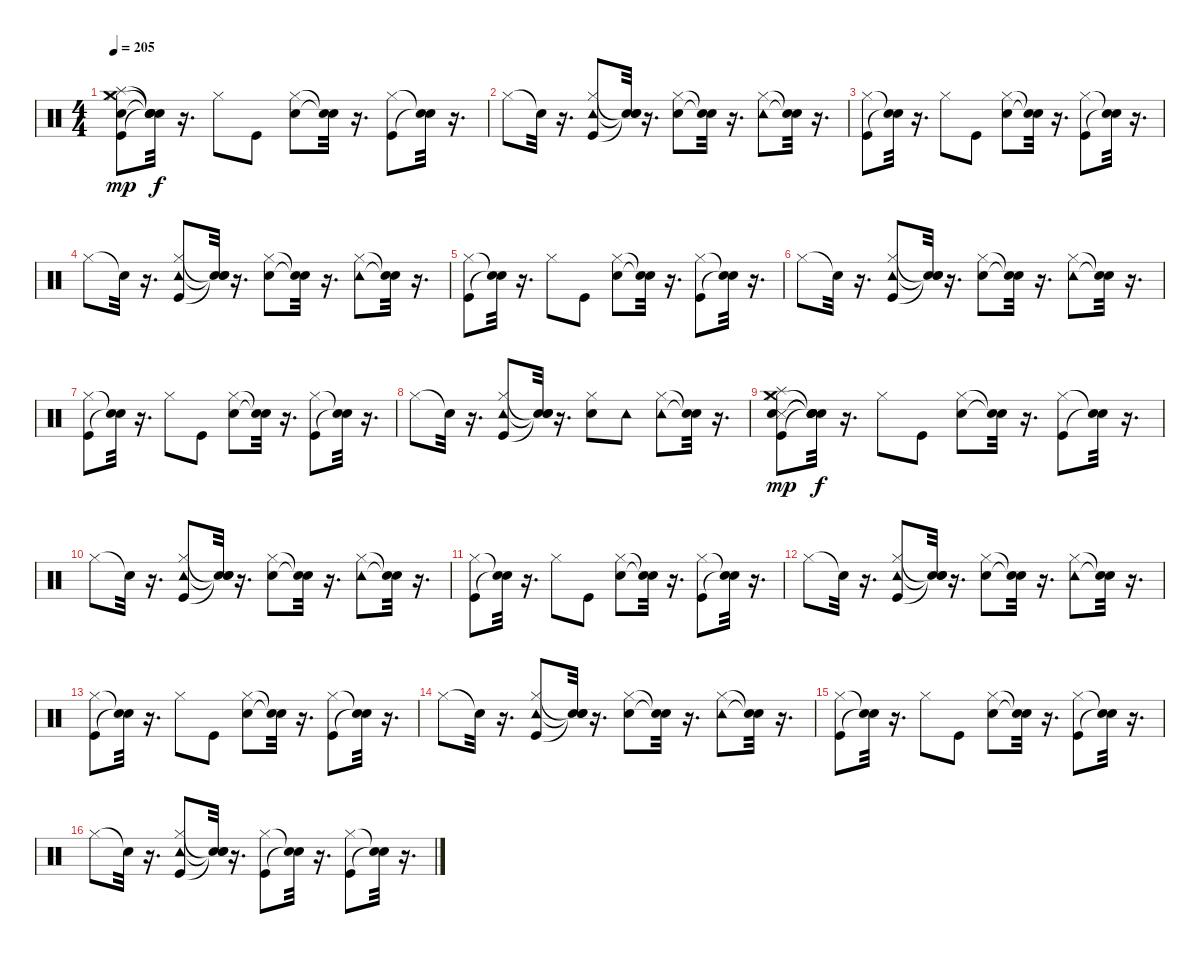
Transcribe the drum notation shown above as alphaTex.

\track "" {instrument percussion}
\staff {score}
\articulation defaults
\ts (4 4)
\tempo 205
\clef neutral
\ks c
("Snare (hit) 2" "Kick (hit)" "Hi-Hat (closed)" "Splash (hit)" "Crash medium (hit)").8{dy mp} ("Snare (hit)"{t} "Snare (hit)"{t} "Snare (hit)"{t} "Snare (hit)"{t}).32{dy f} r.16{d} "Hi-Hat (closed)".8 "Kick (hit)".8 ("Hi-Hat (closed)" "Electric Snare (hit)").8 ("Snare (hit)"{t} "Snare (hit)"{t}).32 r.16{d} ("Hi-Hat (closed)" "Kick (hit)").8 ("Snare (hit)"{t} "Snare (hit)"{t}).32 r.16{d} |
"Hi-Hat (closed)".8 "Snare (hit)"{t}.32 r.16{d} ("Hi-Hat (closed)" "Kick (hit)" "Tambourine (hit)").8 ("Snare (hit)"{t} "Snare (hit)"{t} "Snare (hit)"{t}).32 r.16{d} ("Hi-Hat (closed)" "Electric Snare (hit)").8 ("Snare (hit)"{t} "Snare (hit)"{t}).32 r.16{d} ("Hi-Hat (closed)" "Tambourine (hit)").8 ("Snare (hit)"{t} "Snare (hit)"{t}).32 r.16{d} |
("Kick (hit)" "Hi-Hat (closed)").8 ("Snare (hit)"{t} "Snare (hit)"{t}).32 r.16{d} "Hi-Hat (closed)".8 "Kick (hit)".8 ("Hi-Hat (closed)" "Electric Snare (hit)").8 ("Snare (hit)"{t} "Snare (hit)"{t}).32 r.16{d} ("Hi-Hat (closed)" "Kick (hit)").8 ("Snare (hit)"{t} "Snare (hit)"{t}).32 r.16{d} |
"Hi-Hat (closed)".8 "Snare (hit)"{t}.32 r.16{d} ("Hi-Hat (closed)" "Kick (hit)" "Tambourine (hit)").8 ("Snare (hit)"{t} "Snare (hit)"{t} "Snare (hit)"{t}).32 r.16{d} ("Hi-Hat (closed)" "Electric Snare (hit)").8 ("Snare (hit)"{t} "Snare (hit)"{t}).32 r.16{d} ("Hi-Hat (closed)" "Tambourine (hit)").8 ("Snare (hit)"{t} "Snare (hit)"{t}).32 r.16{d} |
("Kick (hit)" "Hi-Hat (closed)").8 ("Snare (hit)"{t} "Snare (hit)"{t}).32 r.16{d} "Hi-Hat (closed)".8 "Kick (hit)".8 ("Hi-Hat (closed)" "Electric Snare (hit)").8 ("Snare (hit)"{t} "Snare (hit)"{t}).32 r.16{d} ("Hi-Hat (closed)" "Kick (hit)").8 ("Snare (hit)"{t} "Snare (hit)"{t}).32 r.16{d} |
"Hi-Hat (closed)".8 "Snare (hit)"{t}.32 r.16{d} ("Hi-Hat (closed)" "Kick (hit)" "Tambourine (hit)").8 ("Snare (hit)"{t} "Snare (hit)"{t} "Snare (hit)"{t}).32 r.16{d} ("Hi-Hat (closed)" "Electric Snare (hit)").8 ("Snare (hit)"{t} "Snare (hit)"{t}).32 r.16{d} ("Hi-Hat (closed)" "Tambourine (hit)").8 ("Snare (hit)"{t} "Snare (hit)"{t}).32 r.16{d} |
("Kick (hit)" "Hi-Hat (closed)").8 ("Snare (hit)"{t} "Snare (hit)"{t}).32 r.16{d} "Hi-Hat (closed)".8 "Kick (hit)".8 ("Hi-Hat (closed)" "Electric Snare (hit)").8 ("Snare (hit)"{t} "Snare (hit)"{t}).32 r.16{d} ("Hi-Hat (closed)" "Kick (hit)").8 ("Snare (hit)"{t} "Snare (hit)"{t}).32 r.16{d} |
"Hi-Hat (closed)".8 "Snare (hit)"{t}.32 r.16{d} ("Hi-Hat (closed)" "Kick (hit)" "Tambourine (hit)").8 ("Snare (hit)"{t} "Snare (hit)"{t} "Snare (hit)"{t}).32 r.16{d} ("Hi-Hat (closed)" "Electric Snare (hit)").8 "Tambourine (hit)".8 ("Hi-Hat (closed)" "Tambourine (hit)").8 ("Snare (hit)"{t} "Snare (hit)"{t}).32 r.16{d} |
("Metronome (hit)" "Snare (hit) 2" "Kick (hit)" "Hi-Hat (closed)" "Splash (hit)" "Crash medium (hit)").8{dy mp} ("Snare (hit)"{t} "Snare (hit)"{t} "Snare (hit)"{t} "Snare (hit)"{t}).32{dy f} r.16{d} "Hi-Hat (closed)".8 "Kick (hit)".8 ("Hi-Hat (closed)" "Electric Snare (hit)").8 ("Snare (hit)"{t} "Snare (hit)"{t}).32 r.16{d} ("Hi-Hat (closed)" "Kick (hit)").8 ("Snare (hit)"{t} "Snare (hit)"{t}).32 r.16{d} |
"Hi-Hat (closed)".8 "Snare (hit)"{t}.32 r.16{d} ("Hi-Hat (closed)" "Kick (hit)" "Tambourine (hit)").8 ("Snare (hit)"{t} "Snare (hit)"{t} "Snare (hit)"{t}).32 r.16{d} ("Hi-Hat (closed)" "Electric Snare (hit)").8 ("Snare (hit)"{t} "Snare (hit)"{t}).32 r.16{d} ("Hi-Hat (closed)" "Tambourine (hit)").8 ("Snare (hit)"{t} "Snare (hit)"{t}).32 r.16{d} |
("Kick (hit)" "Hi-Hat (closed)").8 ("Snare (hit)"{t} "Snare (hit)"{t}).32 r.16{d} "Hi-Hat (closed)".8 "Kick (hit)".8 ("Hi-Hat (closed)" "Electric Snare (hit)").8 ("Snare (hit)"{t} "Snare (hit)"{t}).32 r.16{d} ("Hi-Hat (closed)" "Kick (hit)").8 ("Snare (hit)"{t} "Snare (hit)"{t}).32 r.16{d} |
"Hi-Hat (closed)".8 "Snare (hit)"{t}.32 r.16{d} ("Hi-Hat (closed)" "Kick (hit)" "Tambourine (hit)").8 ("Snare (hit)"{t} "Snare (hit)"{t} "Snare (hit)"{t}).32 r.16{d} ("Hi-Hat (closed)" "Electric Snare (hit)").8 ("Snare (hit)"{t} "Snare (hit)"{t}).32 r.16{d} ("Hi-Hat (closed)" "Tambourine (hit)").8 ("Snare (hit)"{t} "Snare (hit)"{t}).32 r.16{d} |
("Kick (hit)" "Hi-Hat (closed)").8 ("Snare (hit)"{t} "Snare (hit)"{t}).32 r.16{d} "Hi-Hat (closed)".8 "Kick (hit)".8 ("Hi-Hat (closed)" "Electric Snare (hit)").8 ("Snare (hit)"{t} "Snare (hit)"{t}).32 r.16{d} ("Hi-Hat (closed)" "Kick (hit)").8 ("Snare (hit)"{t} "Snare (hit)"{t}).32 r.16{d} |
"Hi-Hat (closed)".8 "Snare (hit)"{t}.32 r.16{d} ("Hi-Hat (closed)" "Kick (hit)" "Tambourine (hit)").8 ("Snare (hit)"{t} "Snare (hit)"{t} "Snare (hit)"{t}).32 r.16{d} ("Hi-Hat (closed)" "Electric Snare (hit)").8 ("Snare (hit)"{t} "Snare (hit)"{t}).32 r.16{d} ("Hi-Hat (closed)" "Tambourine (hit)").8 ("Snare (hit)"{t} "Snare (hit)"{t}).32 r.16{d} |
("Kick (hit)" "Hi-Hat (closed)").8 ("Snare (hit)"{t} "Snare (hit)"{t}).32 r.16{d} "Hi-Hat (closed)".8 "Kick (hit)".8 ("Hi-Hat (closed)" "Electric Snare (hit)").8 ("Snare (hit)"{t} "Snare (hit)"{t}).32 r.16{d} ("Hi-Hat (closed)" "Kick (hit)").8 ("Snare (hit)"{t} "Snare (hit)"{t}).32 r.16{d} |
"Hi-Hat (closed)".8 "Snare (hit)"{t}.32 r.16{d} ("Hi-Hat (closed)" "Kick (hit)" "Tambourine (hit)").8 ("Snare (hit)"{t} "Snare (hit)"{t} "Snare (hit)"{t}).32 r.16{d} ("Hi-Hat (closed)" "Kick (hit)").8 ("Snare (hit)"{t} "Snare (hit)"{t}).32 r.16{d} ("Hi-Hat (closed)" "Kick (hit)").8 ("Snare (hit)"{t} "Snare (hit)"{t}).32 r.16{d}
